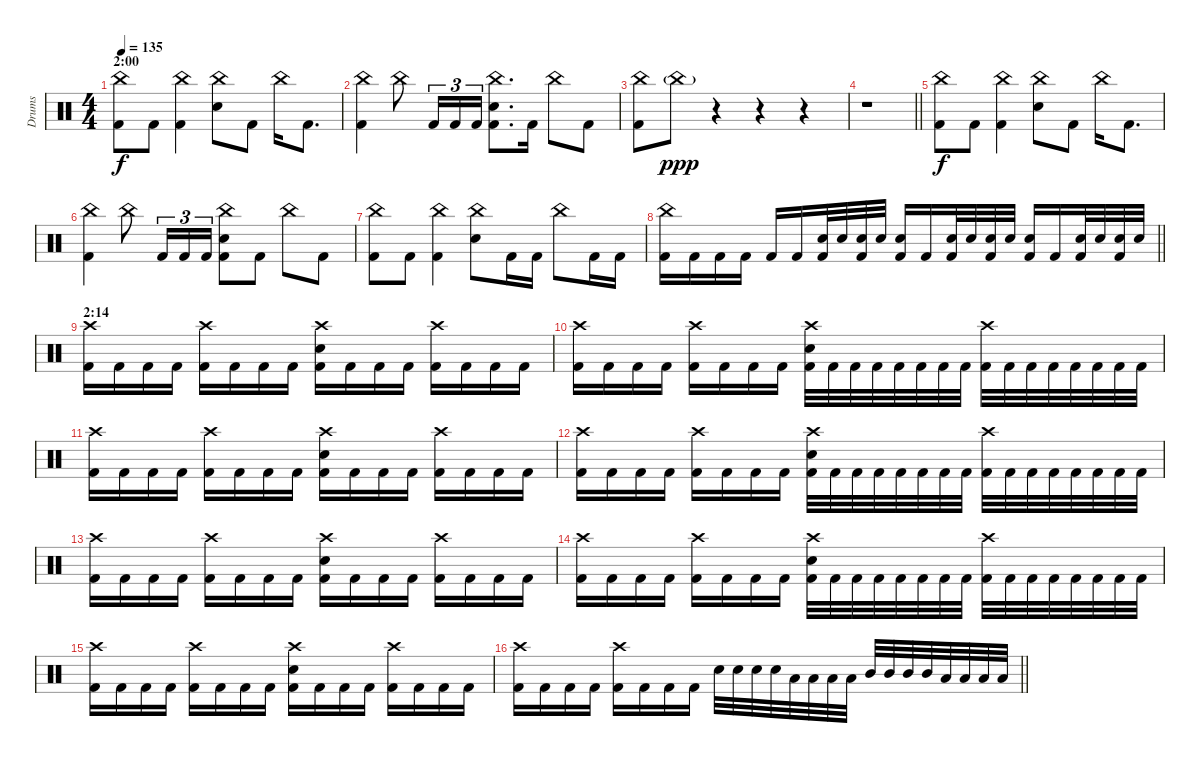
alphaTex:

\track ("Drums" "Drums") {instrument percussion}
\staff {score}
\articulation defaults
\ts (4 4)
\section ("" "2:00")
\tempo 135
\clef neutral
\ks c
("China (hit)" "Kick (hit) 2").8{dy f} "Kick (hit) 2".8 ("China (hit)" "Kick (hit) 2").4 ("China (hit)" "Electric Snare (hit)").8 "Kick (hit) 2".8 "China (hit)".16 "Kick (hit) 2".8{d} |
("China (hit)" "Kick (hit) 2").4 "China (hit)".8 "Kick (hit) 2".16{tu (3 2)} "Kick (hit) 2".16{tu (3 2)} "Kick (hit) 2".16{tu (3 2)} ("China (hit)" "Electric Snare (hit)" "Kick (hit) 2").8{d} "Kick (hit) 2".16 "China (hit)".8 "Kick (hit) 2".8 |
("China (hit)" "Kick (hit) 2").8 "China (hit)"{g}.8{dy ppp} r.4 r.4 r.4 |
\barLineRight lightlight
r.1 |
("China (hit)" "Kick (hit) 2").8{dy f} "Kick (hit) 2".8 ("China (hit)" "Kick (hit) 2").4 ("China (hit)" "Electric Snare (hit)").8 "Kick (hit) 2".8 "China (hit)".16 "Kick (hit) 2".8{d} |
("China (hit)" "Kick (hit) 2").4 "China (hit)".8 "Kick (hit) 2".16{tu (3 2)} "Kick (hit) 2".16{tu (3 2)} "Kick (hit) 2".16{tu (3 2)} ("China (hit)" "Electric Snare (hit)" "Kick (hit) 2").8 "Kick (hit) 2".8 "China (hit)".8 "Kick (hit) 2".8 |
("China (hit)" "Kick (hit) 2").8 "Kick (hit) 2".8 ("China (hit)" "Kick (hit) 2").4 ("China (hit)" "Electric Snare (hit)").8 "Kick (hit) 2".16 "Kick (hit) 2".16 "China (hit)".8 "Kick (hit) 2".16 "Kick (hit) 2".16 |
\barLineRight lightlight
("China (hit)" "Kick (hit) 2").16 "Kick (hit) 2".16 "Kick (hit) 2".16 "Kick (hit) 2".16 "Kick (hit) 2".16 "Kick (hit) 2".16 ("Electric Snare (hit)" "Kick (hit) 2").32 "Electric Snare (hit)".32 ("Electric Snare (hit)" "Kick (hit) 2").32 "Electric Snare (hit)".32 ("Electric Snare (hit)" "Kick (hit) 2").16 "Kick (hit) 2".16 ("Electric Snare (hit)" "Kick (hit) 2").32 "Electric Snare (hit)".32 ("Electric Snare (hit)" "Kick (hit) 2").32 "Electric Snare (hit)".32 ("Electric Snare (hit)" "Kick (hit) 2").16 "Kick (hit) 2".16 ("Electric Snare (hit)" "Kick (hit) 2").32 "Electric Snare (hit)".32 ("Electric Snare (hit)" "Kick (hit) 2").32 "Electric Snare (hit)".32 |
\section ("" "2:14")
("Crash high (hit)" "Kick (hit) 2").16 "Kick (hit) 2".16 "Kick (hit) 2".16 "Kick (hit) 2".16 ("Crash high (hit)" "Kick (hit) 2").16 "Kick (hit) 2".16 "Kick (hit) 2".16 "Kick (hit) 2".16 ("Crash high (hit)" "Electric Snare (hit)" "Kick (hit) 2").16 "Kick (hit) 2".16 "Kick (hit) 2".16 "Kick (hit) 2".16 ("Crash high (hit)" "Kick (hit) 2").16 "Kick (hit) 2".16 "Kick (hit) 2".16 "Kick (hit) 2".16 |
("Crash high (hit)" "Kick (hit) 2").16 "Kick (hit) 2".16 "Kick (hit) 2".16 "Kick (hit) 2".16 ("Crash high (hit)" "Kick (hit) 2").16 "Kick (hit) 2".16 "Kick (hit) 2".16 "Kick (hit) 2".16 ("Crash high (hit)" "Electric Snare (hit)" "Kick (hit) 2").32 "Kick (hit) 2".32 "Kick (hit) 2".32 "Kick (hit) 2".32 "Kick (hit) 2".32 "Kick (hit) 2".32 "Kick (hit) 2".32 "Kick (hit) 2".32 ("Crash high (hit)" "Kick (hit) 2").32 "Kick (hit) 2".32 "Kick (hit) 2".32 "Kick (hit) 2".32 "Kick (hit) 2".32 "Kick (hit) 2".32 "Kick (hit) 2".32 "Kick (hit) 2".32 |
("Crash high (hit)" "Kick (hit) 2").16 "Kick (hit) 2".16 "Kick (hit) 2".16 "Kick (hit) 2".16 ("Crash high (hit)" "Kick (hit) 2").16 "Kick (hit) 2".16 "Kick (hit) 2".16 "Kick (hit) 2".16 ("Crash high (hit)" "Electric Snare (hit)" "Kick (hit) 2").16 "Kick (hit) 2".16 "Kick (hit) 2".16 "Kick (hit) 2".16 ("Crash high (hit)" "Kick (hit) 2").16 "Kick (hit) 2".16 "Kick (hit) 2".16 "Kick (hit) 2".16 |
("Crash high (hit)" "Kick (hit) 2").16 "Kick (hit) 2".16 "Kick (hit) 2".16 "Kick (hit) 2".16 ("Crash high (hit)" "Kick (hit) 2").16 "Kick (hit) 2".16 "Kick (hit) 2".16 "Kick (hit) 2".16 ("Crash high (hit)" "Electric Snare (hit)" "Kick (hit) 2").32 "Kick (hit) 2".32 "Kick (hit) 2".32 "Kick (hit) 2".32 "Kick (hit) 2".32 "Kick (hit) 2".32 "Kick (hit) 2".32 "Kick (hit) 2".32 ("Crash high (hit)" "Kick (hit) 2").32 "Kick (hit) 2".32 "Kick (hit) 2".32 "Kick (hit) 2".32 "Kick (hit) 2".32 "Kick (hit) 2".32 "Kick (hit) 2".32 "Kick (hit) 2".32 |
("Crash high (hit)" "Kick (hit) 2").16 "Kick (hit) 2".16 "Kick (hit) 2".16 "Kick (hit) 2".16 ("Crash high (hit)" "Kick (hit) 2").16 "Kick (hit) 2".16 "Kick (hit) 2".16 "Kick (hit) 2".16 ("Crash high (hit)" "Electric Snare (hit)" "Kick (hit) 2").16 "Kick (hit) 2".16 "Kick (hit) 2".16 "Kick (hit) 2".16 ("Crash high (hit)" "Kick (hit) 2").16 "Kick (hit) 2".16 "Kick (hit) 2".16 "Kick (hit) 2".16 |
("Crash high (hit)" "Kick (hit) 2").16 "Kick (hit) 2".16 "Kick (hit) 2".16 "Kick (hit) 2".16 ("Crash high (hit)" "Kick (hit) 2").16 "Kick (hit) 2".16 "Kick (hit) 2".16 "Kick (hit) 2".16 ("Crash high (hit)" "Electric Snare (hit)" "Kick (hit) 2").32 "Kick (hit) 2".32 "Kick (hit) 2".32 "Kick (hit) 2".32 "Kick (hit) 2".32 "Kick (hit) 2".32 "Kick (hit) 2".32 "Kick (hit) 2".32 ("Crash high (hit)" "Kick (hit) 2").32 "Kick (hit) 2".32 "Kick (hit) 2".32 "Kick (hit) 2".32 "Kick (hit) 2".32 "Kick (hit) 2".32 "Kick (hit) 2".32 "Kick (hit) 2".32 |
("Crash high (hit)" "Kick (hit) 2").16 "Kick (hit) 2".16 "Kick (hit) 2".16 "Kick (hit) 2".16 ("Crash high (hit)" "Kick (hit) 2").16 "Kick (hit) 2".16 "Kick (hit) 2".16 "Kick (hit) 2".16 ("Crash high (hit)" "Electric Snare (hit)" "Kick (hit) 2").16 "Kick (hit) 2".16 "Kick (hit) 2".16 "Kick (hit) 2".16 ("Crash high (hit)" "Kick (hit) 2").16 "Kick (hit) 2".16 "Kick (hit) 2".16 "Kick (hit) 2".16 |
\barLineRight lightlight
("Crash high (hit)" "Kick (hit) 2").16 "Kick (hit) 2".16 "Kick (hit) 2".16 "Kick (hit) 2".16 ("Crash high (hit)" "Kick (hit) 2").16 "Kick (hit) 2".16 "Kick (hit) 2".16 "Kick (hit) 2".16 "Electric Snare (hit)".32 "Electric Snare (hit)".32 "Electric Snare (hit)".32 "Electric Snare (hit)".32 "Low Tom (hit)".32 "Low Tom (hit)".32 "Low Tom (hit)".32 "Low Tom (hit)".32 "Mid Tom (hit)".32 "Mid Tom (hit)".32 "Mid Tom (hit)".32 "Mid Tom (hit)".32 "Low Tom (hit)".32 "Low Tom (hit)".32 "Low Tom (hit)".32 "Low Tom (hit)".32
